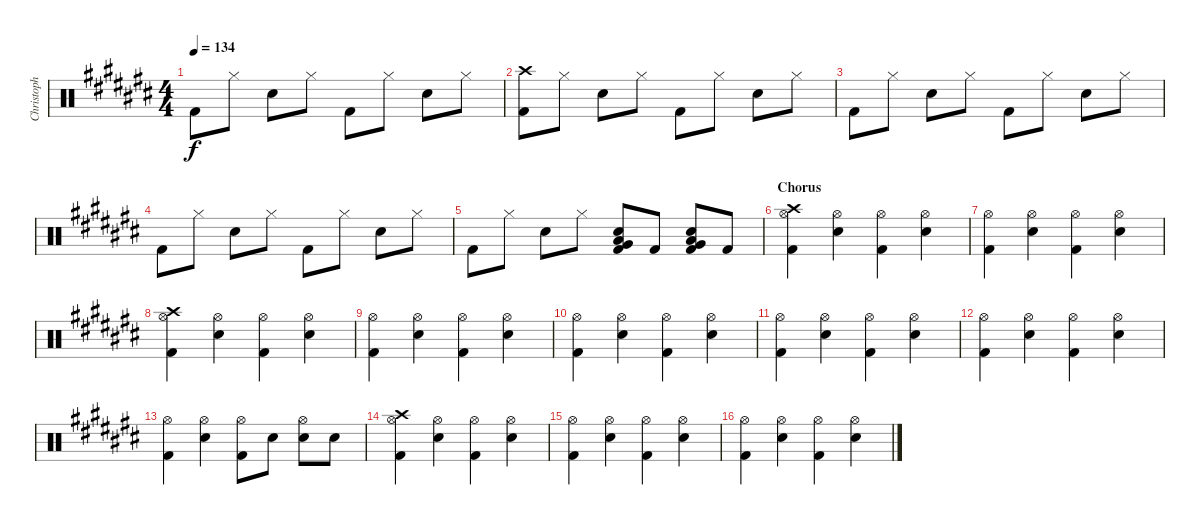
\track ("Christoph Doom Schneider - Drums" "Christoph ") {instrument percussion}
\staff {score}
\articulation defaults
\ts (4 4)
\tempo 134
\clef neutral
\ks c# "Kick (hit) 2".8{dy f} "Hi-Hat (closed)".8 "Electric Snare (hit)".8 "Hi-Hat (closed)".8 "Kick (hit) 2".8 "Hi-Hat (closed)".8 "Electric Snare (hit)".8 "Hi-Hat (closed)".8
|
("Crash high (hit)" "Kick (hit) 2").8 "Hi-Hat (closed)".8 "Electric Snare (hit)".8 "Hi-Hat (closed)".8 "Kick (hit) 2".8 "Hi-Hat (closed)".8 "Electric Snare (hit)".8 "Hi-Hat (closed)".8 |
"Kick (hit) 2".8 "Hi-Hat (closed)".8 "Electric Snare (hit)".8 "Hi-Hat (closed)".8 "Kick (hit) 2".8 "Hi-Hat (closed)".8 "Electric Snare (hit)".8 "Hi-Hat (closed)".8 |
"Kick (hit) 2".8 "Hi-Hat (closed)".8 "Electric Snare (hit)".8 "Hi-Hat (closed)".8 "Kick (hit) 2".8 "Hi-Hat (closed)".8 "Electric Snare (hit)".8 "Hi-Hat (closed)".8 |
"Kick (hit) 2".8 "Hi-Hat (closed)".8 "Electric Snare (hit)".8 "Hi-Hat (closed)".8 ("Low Floor Tom (hit)" "Electric Snare (hit)" "Very Low Tom (hit)" "Kick (hit) 2").8 "Kick (hit) 2".8 ("Low Floor Tom (hit)" "Electric Snare (hit)" "Very Low Tom (hit)" "Kick (hit) 2").8 "Kick (hit) 2".8 |
\section ("" "Chorus")
("Crash high (hit)" "Hi-Hat (open)" "Kick (hit) 2").4 ("Hi-Hat (open)" "Electric Snare (hit)").4 ("Hi-Hat (open)" "Kick (hit) 2").4 ("Hi-Hat (open)" "Electric Snare (hit)").4 |
("Hi-Hat (open)" "Kick (hit) 2").4 ("Hi-Hat (open)" "Electric Snare (hit)").4 ("Hi-Hat (open)" "Kick (hit) 2").4 ("Hi-Hat (open)" "Electric Snare (hit)").4 |
("Crash high (hit)" "Hi-Hat (open)" "Kick (hit) 2").4 ("Hi-Hat (open)" "Electric Snare (hit)").4 ("Hi-Hat (open)" "Kick (hit) 2").4 ("Hi-Hat (open)" "Electric Snare (hit)").4 |
("Hi-Hat (open)" "Kick (hit) 2").4 ("Hi-Hat (open)" "Electric Snare (hit)").4 ("Hi-Hat (open)" "Kick (hit) 2").4 ("Hi-Hat (open)" "Electric Snare (hit)").4 |
("Hi-Hat (open)" "Kick (hit) 2").4 ("Hi-Hat (open)" "Electric Snare (hit)").4 ("Hi-Hat (open)" "Kick (hit) 2").4 ("Hi-Hat (open)" "Electric Snare (hit)").4 |
("Hi-Hat (open)" "Kick (hit) 2").4 ("Hi-Hat (open)" "Electric Snare (hit)").4 ("Hi-Hat (open)" "Kick (hit) 2").4 ("Hi-Hat (open)" "Electric Snare (hit)").4 |
("Hi-Hat (open)" "Kick (hit) 2").4 ("Hi-Hat (open)" "Electric Snare (hit)").4 ("Hi-Hat (open)" "Kick (hit) 2").4 ("Hi-Hat (open)" "Electric Snare (hit)").4 |
("Hi-Hat (open)" "Kick (hit) 2").4 ("Hi-Hat (open)" "Electric Snare (hit)").4 ("Hi-Hat (open)" "Kick (hit) 2").8 "Electric Snare (hit)".8 ("Hi-Hat (open)" "Electric Snare (hit)").8 "Electric Snare (hit)".8 |
("Crash high (hit)" "Hi-Hat (open)" "Kick (hit) 2").4 ("Hi-Hat (open)" "Electric Snare (hit)").4 ("Hi-Hat (open)" "Kick (hit) 2").4 ("Hi-Hat (open)" "Electric Snare (hit)").4 |
("Hi-Hat (open)" "Kick (hit) 2").4 ("Hi-Hat (open)" "Electric Snare (hit)").4 ("Hi-Hat (open)" "Kick (hit) 2").4 ("Hi-Hat (open)" "Electric Snare (hit)").4 |
("Hi-Hat (open)" "Kick (hit) 2").4 ("Hi-Hat (open)" "Electric Snare (hit)").4 ("Hi-Hat (open)" "Kick (hit) 2").4 ("Hi-Hat (open)" "Electric Snare (hit)").4
